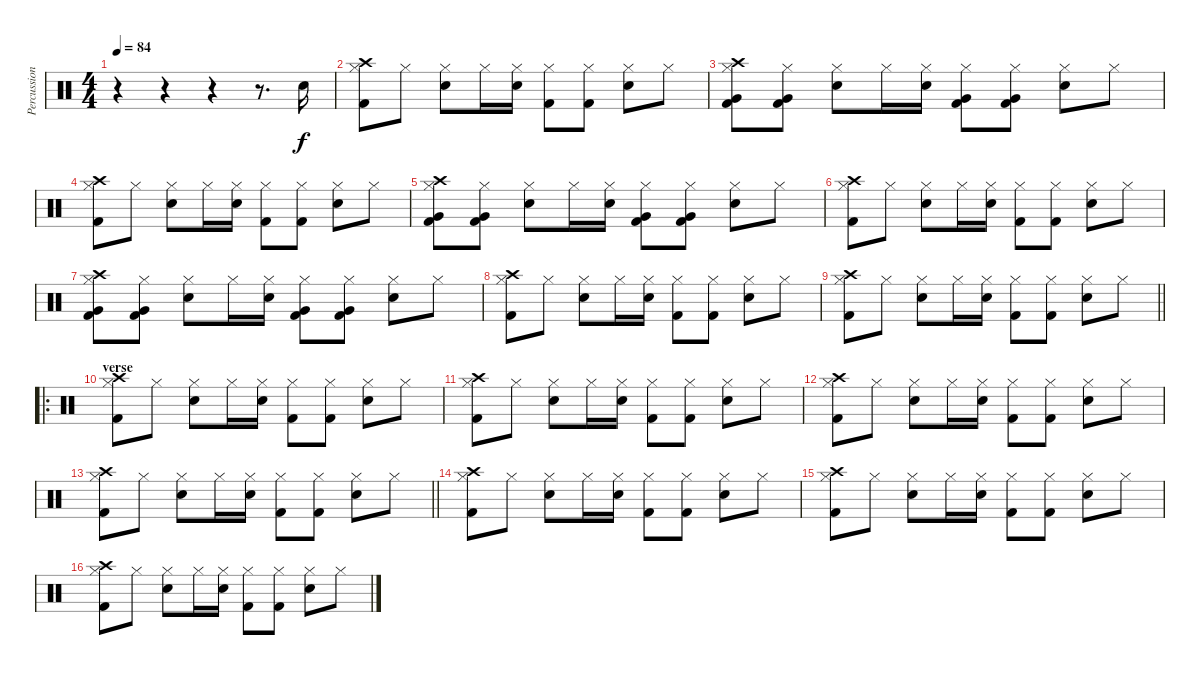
\track ("Percussioni" "Percussion") {instrument percussion}
\staff {score}
\articulation defaults
\ts (4 4)
\tempo 84
\clef neutral
\ks c
r.4{dy f} r.4 r.4 r.8{d} "Electric Snare (hit)".16 |
("Hi-Hat (closed)" "Kick (hit) 2" "Crash high (hit)").8 "Hi-Hat (closed)".8 ("Hi-Hat (closed)" "Electric Snare (hit)").8 "Hi-Hat (closed)".16 ("Hi-Hat (closed)" "Electric Snare (hit)").16 ("Hi-Hat (closed)" "Kick (hit) 2").8 ("Hi-Hat (closed)" "Kick (hit) 2").8 ("Hi-Hat (closed)" "Electric Snare (hit)").8 "Hi-Hat (closed)".8 |
("Very Low Tom (hit)" "Hi-Hat (closed)" "Kick (hit) 2" "Crash high (hit)").8 ("Very Low Tom (hit)" "Hi-Hat (closed)" "Kick (hit) 2").8 ("Electric Snare (hit)" "Hi-Hat (closed)").8 "Hi-Hat (closed)".16 ("Electric Snare (hit)" "Hi-Hat (closed)").16 ("Hi-Hat (closed)" "Very Low Tom (hit)" "Kick (hit) 2").8 ("Hi-Hat (closed)" "Very Low Tom (hit)" "Kick (hit) 2").8 ("Hi-Hat (closed)" "Electric Snare (hit)").8 "Hi-Hat (closed)".8 |
("Hi-Hat (closed)" "Kick (hit) 2" "Crash high (hit)").8 "Hi-Hat (closed)".8 ("Hi-Hat (closed)" "Electric Snare (hit)").8 "Hi-Hat (closed)".16 ("Hi-Hat (closed)" "Electric Snare (hit)").16 ("Hi-Hat (closed)" "Kick (hit) 2").8 ("Hi-Hat (closed)" "Kick (hit) 2").8 ("Hi-Hat (closed)" "Electric Snare (hit)").8 "Hi-Hat (closed)".8 |
("Very Low Tom (hit)" "Hi-Hat (closed)" "Kick (hit) 2" "Crash high (hit)").8 ("Very Low Tom (hit)" "Hi-Hat (closed)" "Kick (hit) 2").8 ("Electric Snare (hit)" "Hi-Hat (closed)").8 "Hi-Hat (closed)".16 ("Electric Snare (hit)" "Hi-Hat (closed)").16 ("Hi-Hat (closed)" "Very Low Tom (hit)" "Kick (hit) 2").8 ("Hi-Hat (closed)" "Very Low Tom (hit)" "Kick (hit) 2").8 ("Hi-Hat (closed)" "Electric Snare (hit)").8 "Hi-Hat (closed)".8 |
("Hi-Hat (closed)" "Kick (hit) 2" "Crash high (hit)").8 "Hi-Hat (closed)".8 ("Hi-Hat (closed)" "Electric Snare (hit)").8 "Hi-Hat (closed)".16 ("Hi-Hat (closed)" "Electric Snare (hit)").16 ("Hi-Hat (closed)" "Kick (hit) 2").8 ("Hi-Hat (closed)" "Kick (hit) 2").8 ("Hi-Hat (closed)" "Electric Snare (hit)").8 "Hi-Hat (closed)".8 |
("Very Low Tom (hit)" "Hi-Hat (closed)" "Kick (hit) 2" "Crash high (hit)").8 ("Very Low Tom (hit)" "Hi-Hat (closed)" "Kick (hit) 2").8 ("Electric Snare (hit)" "Hi-Hat (closed)").8 "Hi-Hat (closed)".16 ("Electric Snare (hit)" "Hi-Hat (closed)").16 ("Hi-Hat (closed)" "Very Low Tom (hit)" "Kick (hit) 2").8 ("Hi-Hat (closed)" "Very Low Tom (hit)" "Kick (hit) 2").8 ("Hi-Hat (closed)" "Electric Snare (hit)").8 "Hi-Hat (closed)".8 |
("Hi-Hat (closed)" "Kick (hit) 2" "Crash high (hit)").8 "Hi-Hat (closed)".8 ("Hi-Hat (closed)" "Electric Snare (hit)").8 "Hi-Hat (closed)".16 ("Hi-Hat (closed)" "Electric Snare (hit)").16 ("Hi-Hat (closed)" "Kick (hit) 2").8 ("Hi-Hat (closed)" "Kick (hit) 2").8 ("Hi-Hat (closed)" "Electric Snare (hit)").8 "Hi-Hat (closed)".8 |
\barLineRight lightlight
("Hi-Hat (closed)" "Kick (hit) 2" "Crash high (hit)").8 "Hi-Hat (closed)".8 ("Hi-Hat (closed)" "Electric Snare (hit)").8 "Hi-Hat (closed)".16 ("Hi-Hat (closed)" "Electric Snare (hit)").16 ("Hi-Hat (closed)" "Kick (hit) 2").8 ("Hi-Hat (closed)" "Kick (hit) 2").8 ("Hi-Hat (closed)" "Electric Snare (hit)").8 "Hi-Hat (closed)".8 |
\ro
\section ("" "verse")
("Hi-Hat (closed)" "Kick (hit) 2" "Crash high (hit)").8 "Hi-Hat (closed)".8 ("Hi-Hat (closed)" "Electric Snare (hit)").8 "Hi-Hat (closed)".16 ("Hi-Hat (closed)" "Electric Snare (hit)").16 ("Hi-Hat (closed)" "Kick (hit) 2").8 ("Hi-Hat (closed)" "Kick (hit) 2").8 ("Hi-Hat (closed)" "Electric Snare (hit)").8 "Hi-Hat (closed)".8 |
("Hi-Hat (closed)" "Kick (hit) 2" "Crash high (hit)").8 "Hi-Hat (closed)".8 ("Hi-Hat (closed)" "Electric Snare (hit)").8 "Hi-Hat (closed)".16 ("Hi-Hat (closed)" "Electric Snare (hit)").16 ("Hi-Hat (closed)" "Kick (hit) 2").8 ("Hi-Hat (closed)" "Kick (hit) 2").8 ("Hi-Hat (closed)" "Electric Snare (hit)").8 "Hi-Hat (closed)".8 |
("Hi-Hat (closed)" "Kick (hit) 2" "Crash high (hit)").8 "Hi-Hat (closed)".8 ("Hi-Hat (closed)" "Electric Snare (hit)").8 "Hi-Hat (closed)".16 ("Hi-Hat (closed)" "Electric Snare (hit)").16 ("Hi-Hat (closed)" "Kick (hit) 2").8 ("Hi-Hat (closed)" "Kick (hit) 2").8 ("Hi-Hat (closed)" "Electric Snare (hit)").8 "Hi-Hat (closed)".8 |
\barLineRight lightlight
("Hi-Hat (closed)" "Kick (hit) 2" "Crash high (hit)").8 "Hi-Hat (closed)".8 ("Hi-Hat (closed)" "Electric Snare (hit)").8 "Hi-Hat (closed)".16 ("Hi-Hat (closed)" "Electric Snare (hit)").16 ("Hi-Hat (closed)" "Kick (hit) 2").8 ("Hi-Hat (closed)" "Kick (hit) 2").8 ("Hi-Hat (closed)" "Electric Snare (hit)").8 "Hi-Hat (closed)".8 |
("Hi-Hat (closed)" "Kick (hit) 2" "Crash high (hit)").8 "Hi-Hat (closed)".8 ("Hi-Hat (closed)" "Electric Snare (hit)").8 "Hi-Hat (closed)".16 ("Hi-Hat (closed)" "Electric Snare (hit)").16 ("Hi-Hat (closed)" "Kick (hit) 2").8 ("Hi-Hat (closed)" "Kick (hit) 2").8 ("Hi-Hat (closed)" "Electric Snare (hit)").8 "Hi-Hat (closed)".8 |
("Hi-Hat (closed)" "Kick (hit) 2" "Crash high (hit)").8 "Hi-Hat (closed)".8 ("Hi-Hat (closed)" "Electric Snare (hit)").8 "Hi-Hat (closed)".16 ("Hi-Hat (closed)" "Electric Snare (hit)").16 ("Hi-Hat (closed)" "Kick (hit) 2").8 ("Hi-Hat (closed)" "Kick (hit) 2").8 ("Hi-Hat (closed)" "Electric Snare (hit)").8 "Hi-Hat (closed)".8 |
("Hi-Hat (closed)" "Kick (hit) 2" "Crash high (hit)").8 "Hi-Hat (closed)".8 ("Hi-Hat (closed)" "Electric Snare (hit)").8 "Hi-Hat (closed)".16 ("Hi-Hat (closed)" "Electric Snare (hit)").16 ("Hi-Hat (closed)" "Kick (hit) 2").8 ("Hi-Hat (closed)" "Kick (hit) 2").8 ("Hi-Hat (closed)" "Electric Snare (hit)").8 "Hi-Hat (closed)".8
